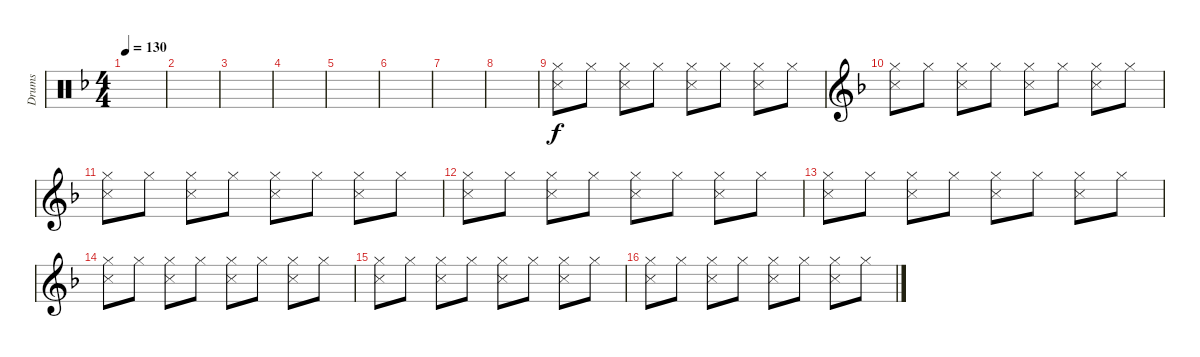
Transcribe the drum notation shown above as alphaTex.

\defaultSystemsLayout 4
\bracketExtendMode groupsimilarinstruments
\otherSystemsTrackNameOrientation horizontal
\track ("Drumkit" "Drums") {instrument percussion}
\staff {score}
\articulation defaults
\ts (4 4)
\tempo 130
\clef neutral
\scale
0.333333
\ks f
|
\scale
0.333333 |
\scale
0.333333 |
\scale
0.333333 |
\scale
0.333333 |
\scale
0.333333 |
\scale
0.333333 |
\scale
0.356322 |
("Hi-Hat (closed)"{acc forcenatural} "Snare (side stick) 3"{acc forcenatural}).8{beam Down} "Hi-Hat (closed)"{acc forcenatural}.8{beam Down} ("Hi-Hat (closed)"{acc forcenatural} "Snare (side stick) 3"{acc forcenatural}).8{beam Down} "Hi-Hat (closed)"{acc forcenatural}.8{beam Down} ("Hi-Hat (closed)"{acc forcenatural} "Snare (side stick) 3"{acc forcenatural}).8{beam Down} "Hi-Hat (closed)"{acc forcenatural}.8{beam Down} ("Hi-Hat (closed)"{acc forcenatural} "Snare (side stick) 3"{acc forcenatural}).8{beam Down} "Hi-Hat (closed)"{acc forcenatural}.8{beam Down} |
\clef g2
("Hi-Hat (closed)"{acc forcenatural} "Snare (side stick) 3"{acc forcenatural}).8{beam Down} "Hi-Hat (closed)"{acc forcenatural}.8{beam Down} ("Hi-Hat (closed)"{acc forcenatural} "Snare (side stick) 3"{acc forcenatural}).8{beam Down} "Hi-Hat (closed)"{acc forcenatural}.8{beam Down} ("Hi-Hat (closed)"{acc forcenatural} "Snare (side stick) 3"{acc forcenatural}).8{beam Down} "Hi-Hat (closed)"{acc forcenatural}.8{beam Down} ("Hi-Hat (closed)"{acc forcenatural} "Snare (side stick) 3"{acc forcenatural}).8{beam Down} "Hi-Hat (closed)"{acc forcenatural}.8{beam Down} |
("Hi-Hat (closed)"{acc forcenatural} "Snare (side stick) 3"{acc forcenatural}).8{beam Down} "Hi-Hat (closed)"{acc forcenatural}.8{beam Down} ("Hi-Hat (closed)"{acc forcenatural} "Snare (side stick) 3"{acc forcenatural}).8{beam Down} "Hi-Hat (closed)"{acc forcenatural}.8{beam Down} ("Hi-Hat (closed)"{acc forcenatural} "Snare (side stick) 3"{acc forcenatural}).8{beam Down} "Hi-Hat (closed)"{acc forcenatural}.8{beam Down} ("Hi-Hat (closed)"{acc forcenatural} "Snare (side stick) 3"{acc forcenatural}).8{beam Down} "Hi-Hat (closed)"{acc forcenatural}.8{beam Down} |
("Hi-Hat (closed)"{acc forcenatural} "Snare (side stick) 3"{acc forcenatural}).8{beam Down} "Hi-Hat (closed)"{acc forcenatural}.8{beam Down} ("Hi-Hat (closed)"{acc forcenatural} "Snare (side stick) 3"{acc forcenatural}).8{beam Down} "Hi-Hat (closed)"{acc forcenatural}.8{beam Down} ("Hi-Hat (closed)"{acc forcenatural} "Snare (side stick) 3"{acc forcenatural}).8{beam Down} "Hi-Hat (closed)"{acc forcenatural}.8{beam Down} ("Hi-Hat (closed)"{acc forcenatural} "Snare (side stick) 3"{acc forcenatural}).8{beam Down} "Hi-Hat (closed)"{acc forcenatural}.8{beam Down} |
("Hi-Hat (closed)"{acc forcenatural} "Snare (side stick) 3"{acc forcenatural}).8{beam Down} "Hi-Hat (closed)"{acc forcenatural}.8{beam Down} ("Hi-Hat (closed)"{acc forcenatural} "Snare (side stick) 3"{acc forcenatural}).8{beam Down} "Hi-Hat (closed)"{acc forcenatural}.8{beam Down} ("Hi-Hat (closed)"{acc forcenatural} "Snare (side stick) 3"{acc forcenatural}).8{beam Down} "Hi-Hat (closed)"{acc forcenatural}.8{beam Down} ("Hi-Hat (closed)"{acc forcenatural} "Snare (side stick) 3"{acc forcenatural}).8{beam Down} "Hi-Hat (closed)"{acc forcenatural}.8{beam Down} |
("Hi-Hat (closed)"{acc forcenatural} "Snare (side stick) 3"{acc forcenatural}).8{beam Down} "Hi-Hat (closed)"{acc forcenatural}.8{beam Down} ("Hi-Hat (closed)"{acc forcenatural} "Snare (side stick) 3"{acc forcenatural}).8{beam Down} "Hi-Hat (closed)"{acc forcenatural}.8{beam Down} ("Hi-Hat (closed)"{acc forcenatural} "Snare (side stick) 3"{acc forcenatural}).8{beam Down} "Hi-Hat (closed)"{acc forcenatural}.8{beam Down} ("Hi-Hat (closed)"{acc forcenatural} "Snare (side stick) 3"{acc forcenatural}).8{beam Down} "Hi-Hat (closed)"{acc forcenatural}.8{beam Down} |
("Hi-Hat (closed)"{acc forcenatural} "Snare (side stick) 3"{acc forcenatural}).8{beam Down} "Hi-Hat (closed)"{acc forcenatural}.8{beam Down} ("Hi-Hat (closed)"{acc forcenatural} "Snare (side stick) 3"{acc forcenatural}).8{beam Down} "Hi-Hat (closed)"{acc forcenatural}.8{beam Down} ("Hi-Hat (closed)"{acc forcenatural} "Snare (side stick) 3"{acc forcenatural}).8{beam Down} "Hi-Hat (closed)"{acc forcenatural}.8{beam Down} ("Hi-Hat (closed)"{acc forcenatural} "Snare (side stick) 3"{acc forcenatural}).8{beam Down} "Hi-Hat (closed)"{acc forcenatural}.8{beam Down} |
("Hi-Hat (closed)"{acc forcenatural} "Snare (side stick) 3"{acc forcenatural}).8{beam Down} "Hi-Hat (closed)"{acc forcenatural}.8{beam Down} ("Hi-Hat (closed)"{acc forcenatural} "Snare (side stick) 3"{acc forcenatural}).8{beam Down} "Hi-Hat (closed)"{acc forcenatural}.8{beam Down} ("Hi-Hat (closed)"{acc forcenatural} "Snare (side stick) 3"{acc forcenatural}).8{beam Down} "Hi-Hat (closed)"{acc forcenatural}.8{beam Down} ("Hi-Hat (closed)"{acc forcenatural} "Snare (side stick) 3"{acc forcenatural}).8{beam Down} "Hi-Hat (closed)"{acc forcenatural}.8{beam Down}
